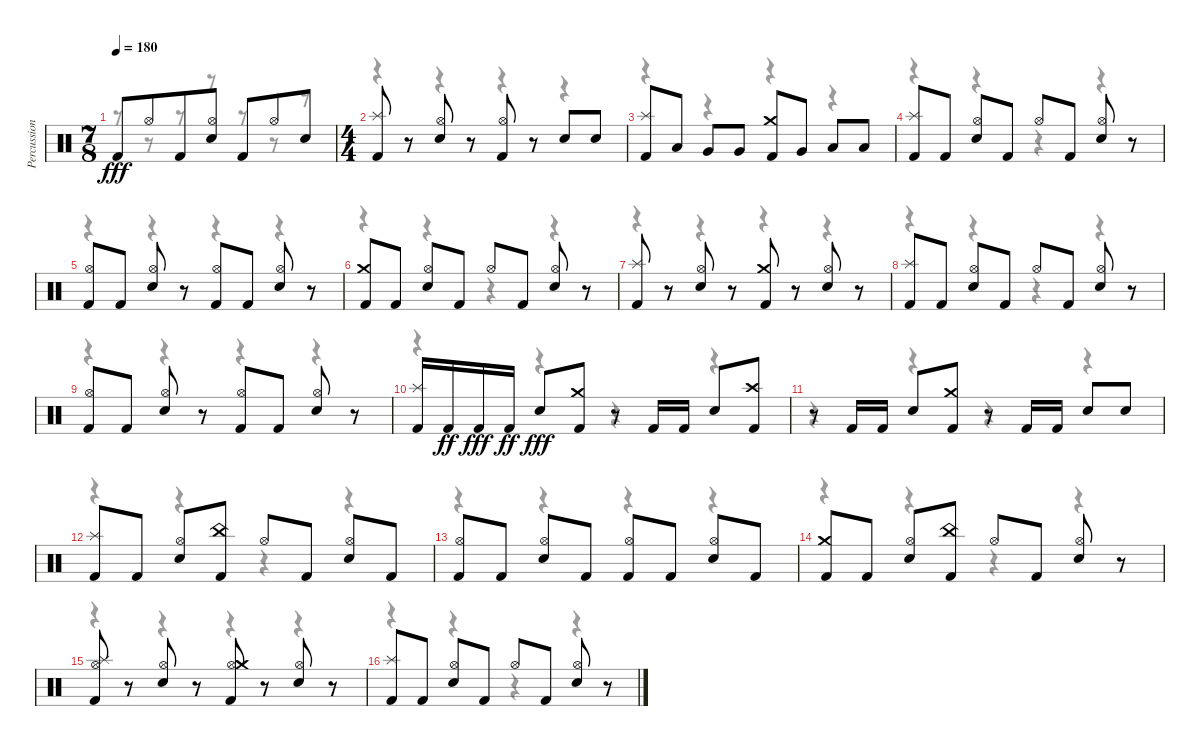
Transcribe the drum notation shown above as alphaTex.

\track ("Percussion" "Percussion") {instrument percussion}
\staff {score}
\articulation defaults
\voice
\ts (7 8)
\tempo 180
\clef neutral
\ks c "Kick (hit) 2".8{dy fff} "Hi-Hat (open)".8 "Kick (hit) 2".8
("Hi-Hat (open)" "Snare (hit) 2").8 "Kick (hit) 2".8 "Hi-Hat (open)".8 "Snare (hit) 2".8 |
\ts (4 4)
("Kick (hit) 2" "Splash (hit)").8 r.8 ("Hi-Hat (open)" "Snare (hit) 2").8 r.8 ("Hi-Hat (open)" "Kick (hit) 2").8 r.8 "Snare (hit) 2".8 "Snare (hit) 2".8 |
("Kick (hit) 2" "Splash (hit)").8 "Low Floor Tom (hit)".8 "Very Low Tom (hit)".8 "Very Low Tom (hit)".8 ("Kick (hit) 2" "Crash medium (hit)").8 "Very Low Tom (hit)".8 "Low Tom (hit)".8 "Low Tom (hit)".8 |
("Kick (hit) 2" "Splash (hit)").8 "Kick (hit) 2".8 ("Hi-Hat (open)" "Snare (hit) 2").8 "Kick (hit) 2".8 "Hi-Hat (open)".8 "Kick (hit) 2".8 ("Hi-Hat (open)" "Snare (hit) 2").8 r.8 |
("Hi-Hat (open)" "Kick (hit) 2").8 "Kick (hit) 2".8 ("Hi-Hat (open)" "Snare (hit) 2").8 r.8 ("Hi-Hat (open)" "Kick (hit) 2").8 "Kick (hit) 2".8 ("Hi-Hat (open)" "Snare (hit) 2").8 r.8 |
("Kick (hit) 2" "Crash medium (hit)").8 "Kick (hit) 2".8 ("Hi-Hat (open)" "Snare (hit) 2").8 "Kick (hit) 2".8 "Hi-Hat (open)".8 "Kick (hit) 2".8 ("Hi-Hat (open)" "Snare (hit) 2").8 r.8 |
("Kick (hit) 2" "Splash (hit)").8 r.8 ("Hi-Hat (open)" "Snare (hit) 2").8 r.8 ("Kick (hit) 2" "Crash medium (hit)").8 r.8 ("Hi-Hat (open)" "Snare (hit) 2").8 r.8 |
("Kick (hit) 2" "Splash (hit)").8 "Kick (hit) 2".8 ("Hi-Hat (open)" "Snare (hit) 2").8 "Kick (hit) 2".8 "Hi-Hat (open)".8 "Kick (hit) 2".8 ("Hi-Hat (open)" "Snare (hit) 2").8 r.8 |
("Hi-Hat (open)" "Kick (hit) 2").8 "Kick (hit) 2".8 ("Hi-Hat (open)" "Snare (hit) 2").8 r.8 ("Hi-Hat (open)" "Kick (hit) 2").8 "Kick (hit) 2".8 ("Hi-Hat (open)" "Snare (hit) 2").8 r.8 |
("Kick (hit) 2" "Splash (hit)").16 "Kick (hit) 2".16{dy ff} "Kick (hit) 2".16{dy fff} "Kick (hit) 2".16{dy ff} "Snare (hit) 2".8{dy fff} ("Kick (hit) 2" "Crash medium (hit)").8 r.8 "Kick (hit) 2".16 "Kick (hit) 2".16 "Snare (hit) 2".8 ("Kick (hit) 2" "Crash high (hit)").8 |
r.8 "Kick (hit) 2".16 "Kick (hit) 2".16 "Snare (hit) 2".8 ("Kick (hit) 2" "Crash medium (hit)").8 r.8 "Kick (hit) 2".16 "Kick (hit) 2".16 "Snare (hit) 2".8 "Snare (hit) 2".8 |
("Kick (hit) 2" "Splash (hit)").8 "Kick (hit) 2".8 ("Hi-Hat (open)" "Snare (hit) 2").8 ("Kick (hit) 2" "China (hit)").8 "Hi-Hat (open)".8 "Kick (hit) 2".8 ("Hi-Hat (open)" "Snare (hit) 2").8 "Kick (hit) 2".8 |
("Hi-Hat (open)" "Kick (hit) 2").8 "Kick (hit) 2".8 ("Hi-Hat (open)" "Snare (hit) 2").8 "Kick (hit) 2".8 ("Hi-Hat (open)" "Kick (hit) 2").8 "Kick (hit) 2".8 ("Hi-Hat (open)" "Snare (hit) 2").8 "Kick (hit) 2".8 |
("Kick (hit) 2" "Crash medium (hit)").8 "Kick (hit) 2".8 ("Hi-Hat (open)" "Snare (hit) 2").8 ("Kick (hit) 2" "China (hit)").8 "Hi-Hat (open)".8 "Kick (hit) 2".8 ("Hi-Hat (open)" "Snare (hit) 2").8 r.8 |
("Hi-Hat (open)" "Kick (hit) 2" "Splash (hit)").8 r.8 ("Hi-Hat (open)" "Snare (hit) 2").8 r.8 ("Hi-Hat (open)" "Kick (hit) 2" "Crash medium (hit)").8 r.8 ("Hi-Hat (open)" "Snare (hit) 2").8 r.8 |
("Kick (hit) 2" "Splash (hit)").8 "Kick (hit) 2".8 ("Hi-Hat (open)" "Snare (hit) 2").8 "Kick (hit) 2".8 "Hi-Hat (open)".8 "Kick (hit) 2".8 ("Hi-Hat (open)" "Snare (hit) 2").8 r.8
\voice
\clef neutral
\ottava regular
\simile none
\ks c
r.8{dy f} r.8 r.8 r.8 r.8 r.8 r.8 |
r.4 r.4 r.4 r.4 |
r.4 r.4 r.4 r.4 |
r.4 r.4 r.4 r.4 |
r.4 r.4 r.4 r.4 |
r.4 r.4 r.4 r.4 |
r.4 r.4 r.4 r.4 |
r.4 r.4 r.4 r.4 |
r.4 r.4 r.4 r.4 |
r.4 r.4 r.4 r.4 |
r.4 r.4 r.4 r.4 |
r.4 r.4 r.4 r.4 |
r.4 r.4 r.4 r.4 |
r.4 r.4 r.4 r.4 |
r.4 r.4 r.4 r.4 |
r.4 r.4 r.4 r.4
